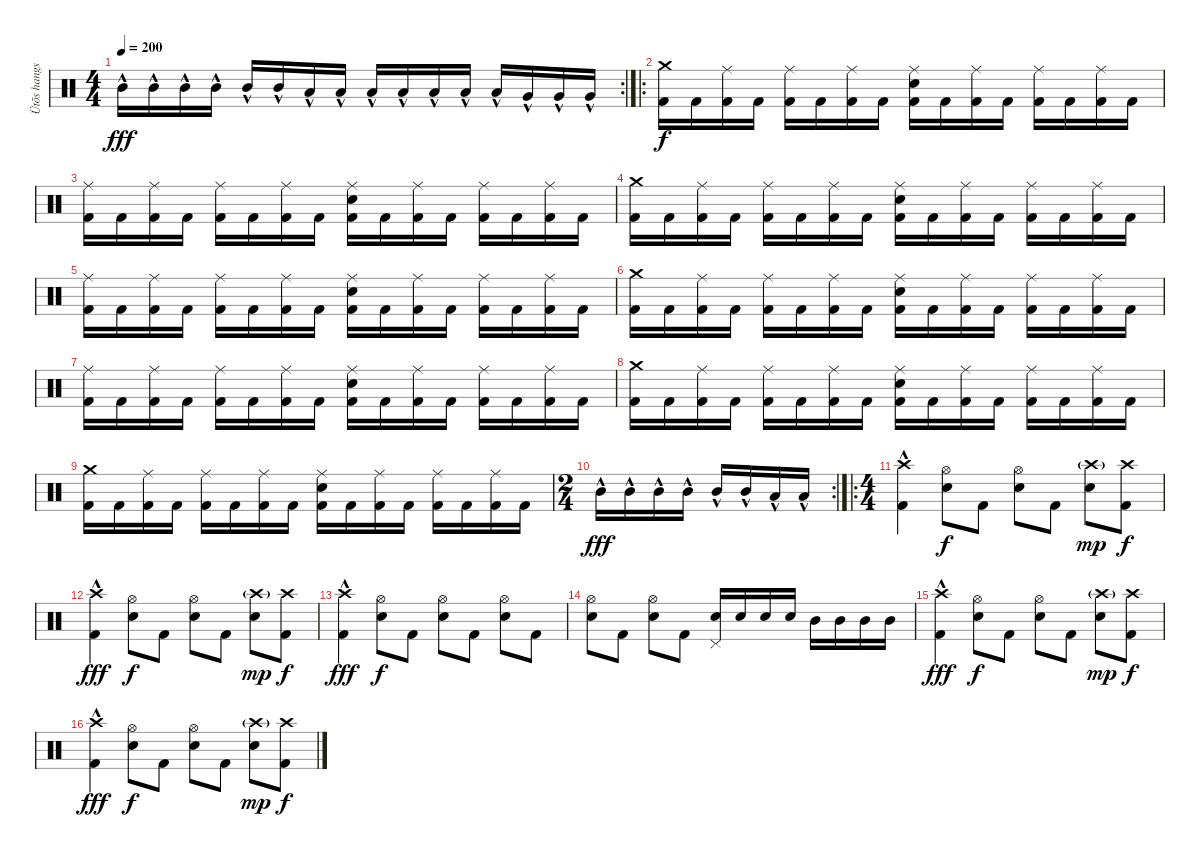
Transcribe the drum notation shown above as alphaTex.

\track ("Ütõs hangszer" "Ütõs hangs") {instrument percussion}
\staff {score}
\articulation defaults
\rc 2
\ts (4 4)
\tempo 200
\clef neutral
\ks c "Mid Tom (hit)"{hac}.16{dy fff} "Mid Tom (hit)"{hac}.16 "Mid Tom (hit)"{hac}.16 "Mid Tom (hit)"{hac}.16 "Mid Tom (hit)"{hac}.16 "Mid Tom (hit)"{hac}.16 "Low Tom (hit)"{hac}.16 "Low Tom (hit)"{hac}.16 "Low Tom (hit)"{hac}.16 "Low Tom (hit)"{hac}.16 "Low Tom (hit)"{hac}.16 "Low Tom (hit)"{hac}.16 "Low Tom (hit)"{hac}.16 "Very Low Tom (hit)"{hac}.16 "Very Low Tom (hit)"{hac}.16 "Very Low Tom (hit)"{hac}.16
|
\ro
("Crash medium (hit)" "Kick (hit) 2").16{dy f} "Kick (hit) 2".16 ("Ride (middle)" "Kick (hit) 2").16 "Kick (hit) 2".16 ("Ride (middle)" "Kick (hit) 2").16 "Kick (hit) 2".16 ("Ride (middle)" "Kick (hit) 2").16 "Kick (hit) 2".16 ("Ride (middle)" "Snare (hit) 2" "Kick (hit) 2").16 "Kick (hit) 2".16 ("Ride (middle)" "Kick (hit) 2").16 "Kick (hit) 2".16 ("Ride (middle)" "Kick (hit) 2").16 "Kick (hit) 2".16 ("Ride (middle)" "Kick (hit) 2").16 "Kick (hit) 2".16 |
("Ride (middle)" "Kick (hit) 2").16 "Kick (hit) 2".16 ("Ride (middle)" "Kick (hit) 2").16 "Kick (hit) 2".16 ("Ride (middle)" "Kick (hit) 2").16 "Kick (hit) 2".16 ("Ride (middle)" "Kick (hit) 2").16 "Kick (hit) 2".16 ("Ride (middle)" "Snare (hit) 2" "Kick (hit) 2").16 "Kick (hit) 2".16 ("Ride (middle)" "Kick (hit) 2").16 "Kick (hit) 2".16 ("Ride (middle)" "Kick (hit) 2").16 "Kick (hit) 2".16 ("Ride (middle)" "Kick (hit) 2").16 "Kick (hit) 2".16 |
("Crash medium (hit)" "Kick (hit) 2").16 "Kick (hit) 2".16 ("Ride (middle)" "Kick (hit) 2").16 "Kick (hit) 2".16 ("Ride (middle)" "Kick (hit) 2").16 "Kick (hit) 2".16 ("Ride (middle)" "Kick (hit) 2").16 "Kick (hit) 2".16 ("Ride (middle)" "Snare (hit) 2" "Kick (hit) 2").16 "Kick (hit) 2".16 ("Ride (middle)" "Kick (hit) 2").16 "Kick (hit) 2".16 ("Ride (middle)" "Kick (hit) 2").16 "Kick (hit) 2".16 ("Ride (middle)" "Kick (hit) 2").16 "Kick (hit) 2".16 |
("Ride (middle)" "Kick (hit) 2").16 "Kick (hit) 2".16 ("Ride (middle)" "Kick (hit) 2").16 "Kick (hit) 2".16 ("Ride (middle)" "Kick (hit) 2").16 "Kick (hit) 2".16 ("Ride (middle)" "Kick (hit) 2").16 "Kick (hit) 2".16 ("Ride (middle)" "Snare (hit) 2" "Kick (hit) 2").16 "Kick (hit) 2".16 ("Ride (middle)" "Kick (hit) 2").16 "Kick (hit) 2".16 ("Ride (middle)" "Kick (hit) 2").16 "Kick (hit) 2".16 ("Ride (middle)" "Kick (hit) 2").16 "Kick (hit) 2".16 |
("Crash medium (hit)" "Kick (hit) 2").16 "Kick (hit) 2".16 ("Ride (middle)" "Kick (hit) 2").16 "Kick (hit) 2".16 ("Ride (middle)" "Kick (hit) 2").16 "Kick (hit) 2".16 ("Ride (middle)" "Kick (hit) 2").16 "Kick (hit) 2".16 ("Ride (middle)" "Snare (hit) 2" "Kick (hit) 2").16 "Kick (hit) 2".16 ("Ride (middle)" "Kick (hit) 2").16 "Kick (hit) 2".16 ("Ride (middle)" "Kick (hit) 2").16 "Kick (hit) 2".16 ("Ride (middle)" "Kick (hit) 2").16 "Kick (hit) 2".16 |
("Ride (middle)" "Kick (hit) 2").16 "Kick (hit) 2".16 ("Ride (middle)" "Kick (hit) 2").16 "Kick (hit) 2".16 ("Ride (middle)" "Kick (hit) 2").16 "Kick (hit) 2".16 ("Ride (middle)" "Kick (hit) 2").16 "Kick (hit) 2".16 ("Ride (middle)" "Snare (hit) 2" "Kick (hit) 2").16 "Kick (hit) 2".16 ("Ride (middle)" "Kick (hit) 2").16 "Kick (hit) 2".16 ("Ride (middle)" "Kick (hit) 2").16 "Kick (hit) 2".16 ("Ride (middle)" "Kick (hit) 2").16 "Kick (hit) 2".16 |
("Crash medium (hit)" "Kick (hit) 2").16 "Kick (hit) 2".16 ("Ride (middle)" "Kick (hit) 2").16 "Kick (hit) 2".16 ("Ride (middle)" "Kick (hit) 2").16 "Kick (hit) 2".16 ("Ride (middle)" "Kick (hit) 2").16 "Kick (hit) 2".16 ("Ride (middle)" "Snare (hit) 2" "Kick (hit) 2").16 "Kick (hit) 2".16 ("Ride (middle)" "Kick (hit) 2").16 "Kick (hit) 2".16 ("Ride (middle)" "Kick (hit) 2").16 "Kick (hit) 2".16 ("Ride (middle)" "Kick (hit) 2").16 "Kick (hit) 2".16 |
("Crash medium (hit)" "Kick (hit) 2").16 "Kick (hit) 2".16 ("Ride (middle)" "Kick (hit) 2").16 "Kick (hit) 2".16 ("Ride (middle)" "Kick (hit) 2").16 "Kick (hit) 2".16 ("Ride (middle)" "Kick (hit) 2").16 "Kick (hit) 2".16 ("Ride (middle)" "Snare (hit) 2" "Kick (hit) 2").16 "Kick (hit) 2".16 ("Ride (middle)" "Kick (hit) 2").16 "Kick (hit) 2".16 ("Ride (middle)" "Kick (hit) 2").16 "Kick (hit) 2".16 ("Ride (middle)" "Kick (hit) 2").16 "Kick (hit) 2".16 |
\rc 2
\ts (2 4)
"Mid Tom (hit)"{hac}.16{dy fff} "Mid Tom (hit)"{hac}.16 "Mid Tom (hit)"{hac}.16 "Mid Tom (hit)"{hac}.16 "Mid Tom (hit)"{hac}.16 "Mid Tom (hit)"{hac}.16 "Low Tom (hit)"{hac}.16 "Low Tom (hit)"{hac}.16 |
\ro
\ts (4 4)
("Crash high (hit)"{hac} "Kick (hit) 2").4 ("Hi-Hat (open)" "Snare (hit) 2").8{dy f} "Kick (hit) 2".8 ("Hi-Hat (open)" "Snare (hit) 2").8 "Kick (hit) 2".8 ("Crash high (hit)"{g} "Snare (hit) 2").8{dy mp} ("Crash high (hit)" "Kick (hit) 2").8{dy f} |
("Crash high (hit)"{hac} "Kick (hit) 2").4{dy fff} ("Hi-Hat (open)" "Snare (hit) 2").8{dy f} "Kick (hit) 2".8 ("Hi-Hat (open)" "Snare (hit) 2").8 "Kick (hit) 2".8 ("Crash high (hit)"{g} "Snare (hit) 2").8{dy mp} ("Crash high (hit)" "Kick (hit) 2").8{dy f} |
("Crash high (hit)"{hac} "Kick (hit) 2").4{dy fff} ("Hi-Hat (open)" "Snare (hit) 2").8{dy f} "Kick (hit) 2".8 ("Hi-Hat (open)" "Snare (hit) 2").8 "Kick (hit) 2".8 ("Hi-Hat (open)" "Snare (hit) 2").8 "Kick (hit) 2".8 |
("Hi-Hat (open)" "Snare (hit) 2").8 "Kick (hit) 2".8 ("Hi-Hat (open)" "Snare (hit) 2").8 "Kick (hit) 2".8 ("Pedal Hi-Hat (hit)" "Snare (hit) 2").16 "Snare (hit) 2".16 "Snare (hit) 2".16 "Snare (hit) 2".16 "Mid Tom (hit)".16 "Mid Tom (hit)".16 "Mid Tom (hit)".16 "Mid Tom (hit)".16 |
("Crash high (hit)"{hac} "Kick (hit) 2").4{dy fff} ("Hi-Hat (open)" "Snare (hit) 2").8{dy f} "Kick (hit) 2".8 ("Hi-Hat (open)" "Snare (hit) 2").8 "Kick (hit) 2".8 ("Crash high (hit)"{g} "Snare (hit) 2").8{dy mp} ("Crash high (hit)" "Kick (hit) 2").8{dy f} |
("Crash high (hit)"{hac} "Kick (hit) 2").4{dy fff} ("Hi-Hat (open)" "Snare (hit) 2").8{dy f} "Kick (hit) 2".8 ("Hi-Hat (open)" "Snare (hit) 2").8 "Kick (hit) 2".8 ("Crash high (hit)"{g} "Snare (hit) 2").8{dy mp} ("Crash high (hit)" "Kick (hit) 2").8{dy f}
